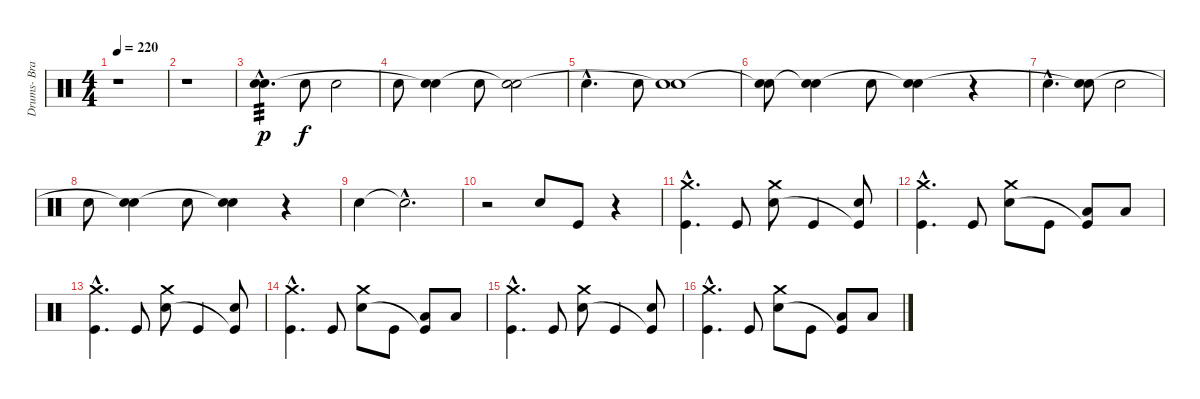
\track ("Drums- Branden Steineckert" "Drums- Bra") {instrument percussion}
\staff {score}
\articulation defaults
\ts (4 4)
\tempo 220
\clef neutral
\ks c
r.1{dy p} |
r.1 |
("Snare (hit) 2"{hac} "Electric Snare (hit)"{hac}).4{d tp 3} "Snare (hit) 2".8{dy f} "Snare (hit) 2".2 |
"Snare (hit) 2".8 ("Snare (hit) 2" "Snare (hit)"{t}).4 "Snare (hit) 2".8 ("Snare (hit) 2" "Snare (hit)"{t}).2 |
"Snare (hit) 2"{hac}.4{d} "Snare (hit) 2".8 ("Snare (hit) 2" "Snare (hit)"{t}).1 |
("Snare (hit) 2" "Electric Snare (hit)"{t}).8 ("Snare (hit) 2" "Snare (hit)"{t}).4 "Snare (hit) 2".8 ("Snare (hit) 2" "Snare (hit)"{t}).4 r.4 |
"Snare (hit) 2"{hac}.4{d} ("Snare (hit) 2" "Snare (hit)"{t}).8 "Snare (hit) 2".2 |
"Snare (hit) 2".8 ("Snare (hit) 2" "Snare (hit)"{t}).4 "Snare (hit) 2".8 ("Snare (hit) 2" "Snare (hit)"{t}).4 r.4 |
"Snare (hit) 2".4 "Snare (hit)"{hac t}.2{d} |
r.2 "Snare (hit) 2".8 "Kick (hit)".8 r.4 |
("Crash medium (hit)"{hac} "Kick (hit)"{hac}).4{d} "Kick (hit)".8 ("Crash medium (hit)" "Snare (hit) 2").8 "Kick (hit)".4 ("Snare (hit) 2" "Kick (hit)"{t}).8 |
("Crash medium (hit)"{hac} "Kick (hit)"{hac}).4{d} "Kick (hit)".8 ("Crash medium (hit)" "Snare (hit) 2").8 "Kick (hit)".8 ("Low Tom (hit)" "Kick (hit)"{t}).8 "Low Floor Tom (hit)".8 |
("Crash medium (hit)"{hac} "Kick (hit)"{hac}).4{d} "Kick (hit)".8 ("Crash medium (hit)" "Snare (hit) 2").8 "Kick (hit)".4 ("Snare (hit) 2" "Kick (hit)"{t}).8 |
("Crash medium (hit)"{hac} "Kick (hit)"{hac}).4{d} "Kick (hit)".8 ("Crash medium (hit)" "Snare (hit) 2").8 "Kick (hit)".8 ("Low Tom (hit)" "Kick (hit)"{t}).8 "Low Floor Tom (hit)".8 |
("Crash medium (hit)"{hac} "Kick (hit)"{hac}).4{d} "Kick (hit)".8 ("Crash medium (hit)" "Snare (hit) 2").8 "Kick (hit)".4 ("Snare (hit) 2" "Kick (hit)"{t}).8 |
("Crash medium (hit)"{hac} "Kick (hit)"{hac}).4{d} "Kick (hit)".8 ("Crash medium (hit)" "Snare (hit) 2").8 "Kick (hit)".8 ("Low Tom (hit)" "Kick (hit)"{t}).8 "Low Floor Tom (hit)".8
